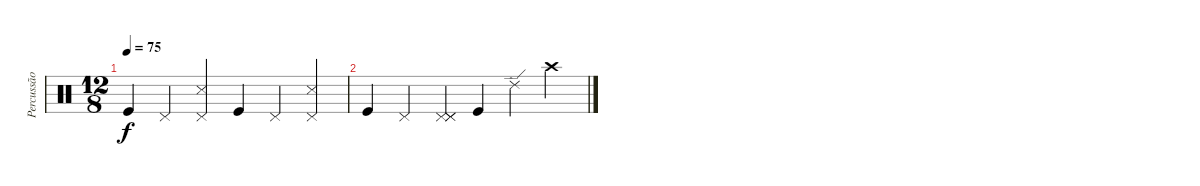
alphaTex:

\track ("Percussão" "Percussão") {instrument percussion}
\staff {score}
\articulation defaults
\ts (12 8)
\tempo 75
\clef neutral
\ks c "Kick (hit)".4{dy f} "Pedal Hi-Hat (hit)".4
("Pedal Hi-Hat (hit)" "Metronome (hit)").4 "Kick (hit)".4 "Pedal Hi-Hat (hit)".4 ("Pedal Hi-Hat (hit)" "Metronome (hit)").4 |
"Kick (hit)".4 "Pedal Hi-Hat (hit)".4 ("Pedal Hi-Hat (hit)" "Pedal Hi-Hat (hit)" "Pedal Hi-Hat (hit)").4 "Kick (hit)".4 "Ride (edge) 2".4 "Crash high (hit)".4
